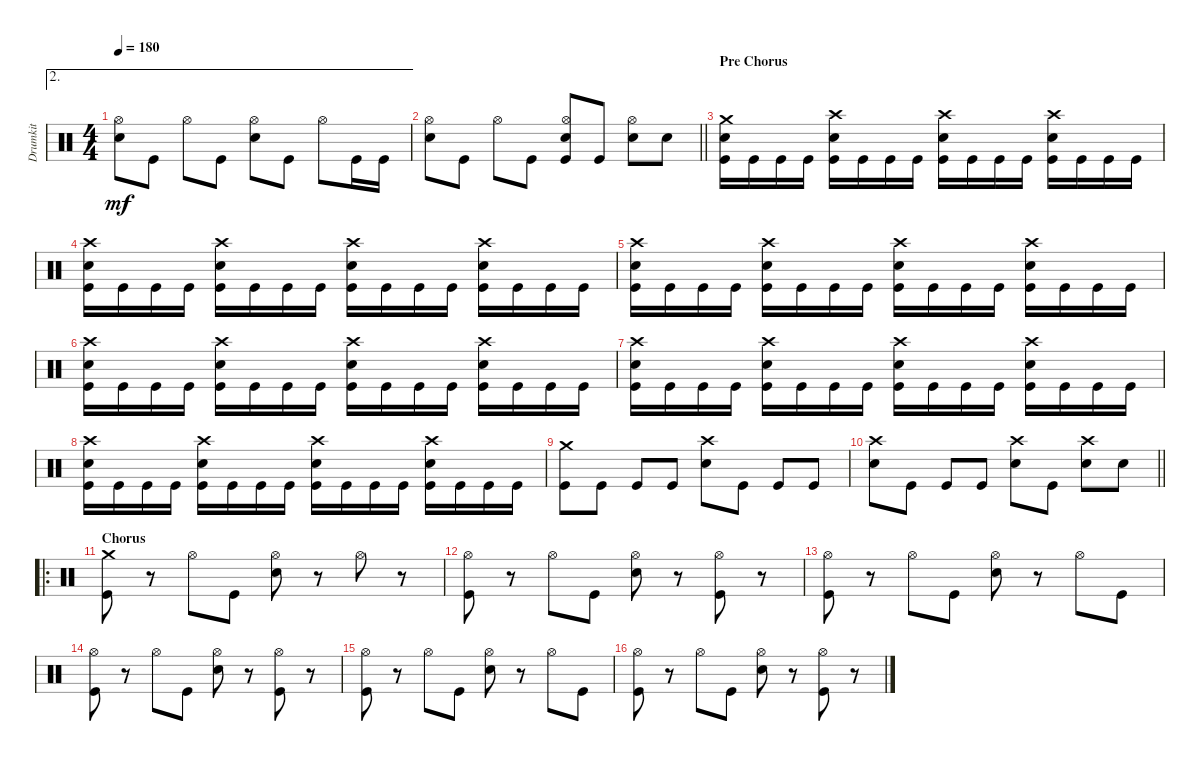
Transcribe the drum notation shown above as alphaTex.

\track ("Drumkit" "Drumkit") {instrument percussion}
\staff {score}
\articulation defaults
\ae 2
\ts (4 4)
\tempo 180
\clef neutral
\ks c
("Snare (hit) 2" "Hi-Hat (open)").8{dy mf} "Kick (hit)".8 "Hi-Hat (open)".8 "Kick (hit)".8 ("Snare (hit) 2" "Hi-Hat (open)").8 "Kick (hit)".8 "Hi-Hat (open)".8 "Kick (hit)".16 "Kick (hit)".16 |
\barLineRight lightlight
("Snare (hit) 2" "Hi-Hat (open)").8 "Kick (hit)".8 "Hi-Hat (open)".8 "Kick (hit)".8 ("Snare (hit) 2" "Hi-Hat (open)" "Kick (hit)").8 "Kick (hit)".8 ("Hi-Hat (open)" "Snare (hit) 2").8 "Snare (hit) 2".8 |
\section ("" "Pre Chorus")
("Kick (hit)" "Snare (hit) 2" "Crash medium (hit)").16 "Kick (hit)".16 "Kick (hit)".16 "Kick (hit)".16 ("Kick (hit)" "Snare (hit) 2" "Crash high (hit)").16 "Kick (hit)".16 "Kick (hit)".16 "Kick (hit)".16 ("Kick (hit)" "Snare (hit) 2" "Crash high (hit)").16 "Kick (hit)".16 "Kick (hit)".16 "Kick (hit)".16 ("Kick (hit)" "Snare (hit) 2" "Crash high (hit)").16 "Kick (hit)".16 "Kick (hit)".16 "Kick (hit)".16 |
("Kick (hit)" "Snare (hit) 2" "Crash high (hit)").16 "Kick (hit)".16 "Kick (hit)".16 "Kick (hit)".16 ("Kick (hit)" "Snare (hit) 2" "Crash high (hit)").16 "Kick (hit)".16 "Kick (hit)".16 "Kick (hit)".16 ("Kick (hit)" "Snare (hit) 2" "Crash high (hit)").16 "Kick (hit)".16 "Kick (hit)".16 "Kick (hit)".16 ("Kick (hit)" "Snare (hit) 2" "Crash high (hit)").16 "Kick (hit)".16 "Kick (hit)".16 "Kick (hit)".16 |
("Kick (hit)" "Snare (hit) 2" "Crash high (hit)").16 "Kick (hit)".16 "Kick (hit)".16 "Kick (hit)".16 ("Kick (hit)" "Snare (hit) 2" "Crash high (hit)").16 "Kick (hit)".16 "Kick (hit)".16 "Kick (hit)".16 ("Kick (hit)" "Snare (hit) 2" "Crash high (hit)").16 "Kick (hit)".16 "Kick (hit)".16 "Kick (hit)".16 ("Kick (hit)" "Snare (hit) 2" "Crash high (hit)").16 "Kick (hit)".16 "Kick (hit)".16 "Kick (hit)".16 |
("Kick (hit)" "Snare (hit) 2" "Crash high (hit)").16 "Kick (hit)".16 "Kick (hit)".16 "Kick (hit)".16 ("Kick (hit)" "Snare (hit) 2" "Crash high (hit)").16 "Kick (hit)".16 "Kick (hit)".16 "Kick (hit)".16 ("Kick (hit)" "Snare (hit) 2" "Crash high (hit)").16 "Kick (hit)".16 "Kick (hit)".16 "Kick (hit)".16 ("Kick (hit)" "Snare (hit) 2" "Crash high (hit)").16 "Kick (hit)".16 "Kick (hit)".16 "Kick (hit)".16 |
("Kick (hit)" "Snare (hit) 2" "Crash high (hit)").16 "Kick (hit)".16 "Kick (hit)".16 "Kick (hit)".16 ("Kick (hit)" "Snare (hit) 2" "Crash high (hit)").16 "Kick (hit)".16 "Kick (hit)".16 "Kick (hit)".16 ("Kick (hit)" "Snare (hit) 2" "Crash high (hit)").16 "Kick (hit)".16 "Kick (hit)".16 "Kick (hit)".16 ("Kick (hit)" "Snare (hit) 2" "Crash high (hit)").16 "Kick (hit)".16 "Kick (hit)".16 "Kick (hit)".16 |
("Kick (hit)" "Snare (hit) 2" "Crash high (hit)").16 "Kick (hit)".16 "Kick (hit)".16 "Kick (hit)".16 ("Kick (hit)" "Snare (hit) 2" "Crash high (hit)").16 "Kick (hit)".16 "Kick (hit)".16 "Kick (hit)".16 ("Kick (hit)" "Snare (hit) 2" "Crash high (hit)").16 "Kick (hit)".16 "Kick (hit)".16 "Kick (hit)".16 ("Kick (hit)" "Snare (hit) 2" "Crash high (hit)").16 "Kick (hit)".16 "Kick (hit)".16 "Kick (hit)".16 |
("Kick (hit)" "Crash medium (hit)").8 "Kick (hit)".8 "Kick (hit)".8 "Kick (hit)".8 ("Snare (hit) 2" "Crash high (hit)").8 "Kick (hit)".8 "Kick (hit)".8 "Kick (hit)".8 |
\barLineRight lightlight
("Snare (hit) 2" "Crash high (hit)").8 "Kick (hit)".8 "Kick (hit)".8 "Kick (hit)".8 ("Snare (hit) 2" "Crash high (hit)").8 "Kick (hit)".8 ("Snare (hit) 2" "Crash high (hit)").8 "Snare (hit) 2".8 |
\ro
\section ("" "Chorus")
("Kick (hit)" "Crash medium (hit)").8 r.8 "Hi-Hat (open)".8 "Kick (hit)".8 ("Snare (hit) 2" "Hi-Hat (open)").8 r.8 "Hi-Hat (open)".8 r.8 |
("Kick (hit)" "Hi-Hat (open)").8 r.8 "Hi-Hat (open)".8 "Kick (hit)".8 ("Snare (hit) 2" "Hi-Hat (open)").8 r.8 ("Kick (hit)" "Hi-Hat (open)").8 r.8 |
("Kick (hit)" "Hi-Hat (open)").8 r.8 "Hi-Hat (open)".8 "Kick (hit)".8 ("Snare (hit) 2" "Hi-Hat (open)").8 r.8 "Hi-Hat (open)".8 "Kick (hit)".8 |
("Kick (hit)" "Hi-Hat (open)").8 r.8 "Hi-Hat (open)".8 "Kick (hit)".8 ("Snare (hit) 2" "Hi-Hat (open)").8 r.8 ("Kick (hit)" "Hi-Hat (open)").8 r.8 |
("Kick (hit)" "Hi-Hat (open)").8 r.8 "Hi-Hat (open)".8 "Kick (hit)".8 ("Snare (hit) 2" "Hi-Hat (open)").8 r.8 "Hi-Hat (open)".8 "Kick (hit)".8 |
("Kick (hit)" "Hi-Hat (open)").8 r.8 "Hi-Hat (open)".8 "Kick (hit)".8 ("Snare (hit) 2" "Hi-Hat (open)").8 r.8 ("Kick (hit)" "Hi-Hat (open)").8 r.8
